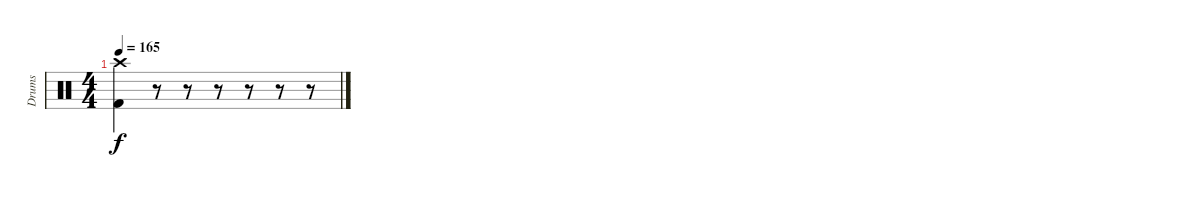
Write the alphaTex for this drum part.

\track ("Drums" "Drums") {instrument percussion}
\staff {score}
\articulation defaults
\ts (4 4)
\tempo 165
\clef neutral
\ks c
("Kick (hit) 2" "Crash high (hit)").4{dy f} r.8 r.8 r.8 r.8 r.8 r.8
